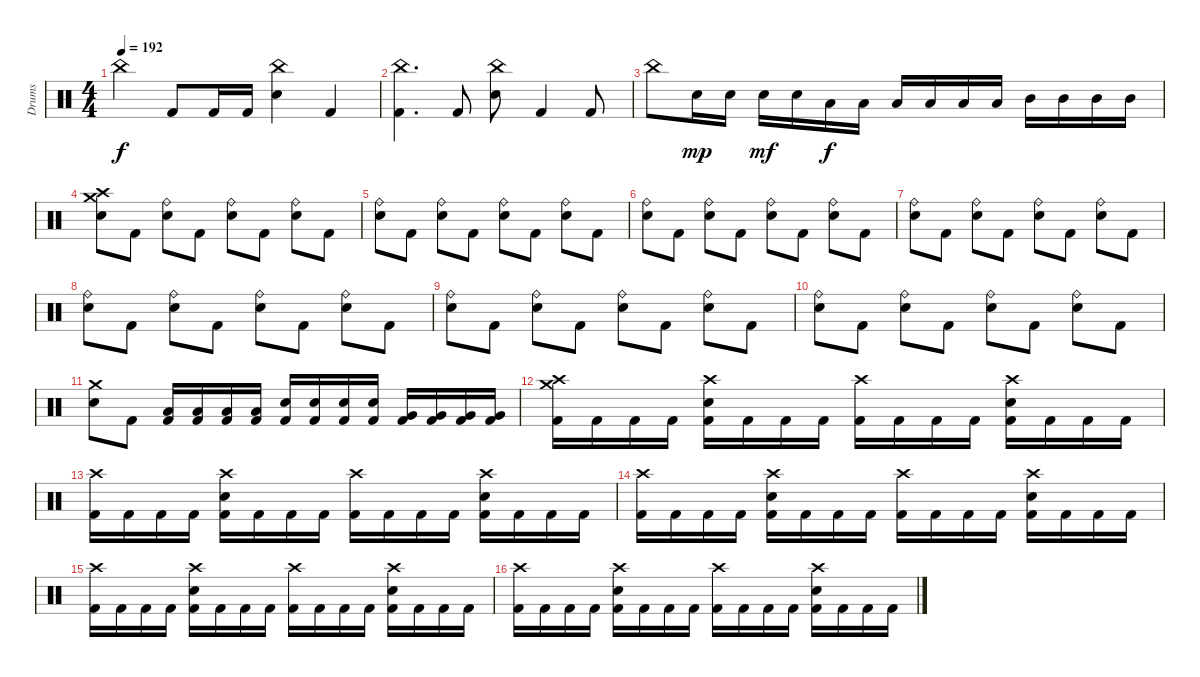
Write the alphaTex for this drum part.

\track ("Drums" "Drums") {instrument percussion}
\staff {score}
\articulation defaults
\ts (4 4)
\tempo 192
\clef neutral
\ks c "China (hit)".4{dy f} "Kick (hit) 2".8 "Kick (hit) 2".16 "Kick (hit) 2".16
("China (hit)" "Snare (hit) 2").4 "Kick (hit) 2".4 |
("China (hit)" "Kick (hit) 2").4{d} "Kick (hit) 2".8 ("China (hit)" "Snare (hit) 2").8 "Kick (hit) 2".4 "Kick (hit) 2".8 |
"China (hit)".8 "Snare (hit) 2".16{dy mp} "Snare (hit) 2".16 "Snare (hit) 2".16{dy mf} "Snare (hit) 2".16 "Low Tom (hit)".16{dy f} "Low Tom (hit)".16 "Low Tom (hit)".16 "Low Tom (hit)".16 "Low Tom (hit)".16 "Low Tom (hit)".16 "Mid Tom (hit)".16 "Mid Tom (hit)".16 "Mid Tom (hit)".16 "Mid Tom (hit)".16 |
\section ("" "")
("Crash medium (hit)" "Crash high (hit)" "Snare (hit) 2").8 "Kick (hit) 2".8 ("Ride (bell)" "Snare (hit) 2").8 "Kick (hit) 2".8 ("Ride (bell)" "Snare (hit) 2").8 "Kick (hit) 2".8 ("Ride (bell)" "Snare (hit) 2").8 "Kick (hit) 2".8 |
("Ride (bell)" "Snare (hit) 2").8 "Kick (hit) 2".8 ("Ride (bell)" "Snare (hit) 2").8 "Kick (hit) 2".8 ("Ride (bell)" "Snare (hit) 2").8 "Kick (hit) 2".8 ("Ride (bell)" "Snare (hit) 2").8 "Kick (hit) 2".8 |
("Ride (bell)" "Snare (hit) 2").8 "Kick (hit) 2".8 ("Ride (bell)" "Snare (hit) 2").8 "Kick (hit) 2".8 ("Ride (bell)" "Snare (hit) 2").8 "Kick (hit) 2".8 ("Ride (bell)" "Snare (hit) 2").8 "Kick (hit) 2".8 |
("Ride (bell)" "Snare (hit) 2").8 "Kick (hit) 2".8 ("Ride (bell)" "Snare (hit) 2").8 "Kick (hit) 2".8 ("Ride (bell)" "Snare (hit) 2").8 "Kick (hit) 2".8 ("Ride (bell)" "Snare (hit) 2").8 "Kick (hit) 2".8 |
("Ride (bell)" "Snare (hit) 2").8 "Kick (hit) 2".8 ("Ride (bell)" "Snare (hit) 2").8 "Kick (hit) 2".8 ("Ride (bell)" "Snare (hit) 2").8 "Kick (hit) 2".8 ("Ride (bell)" "Snare (hit) 2").8 "Kick (hit) 2".8 |
("Ride (bell)" "Snare (hit) 2").8 "Kick (hit) 2".8 ("Ride (bell)" "Snare (hit) 2").8 "Kick (hit) 2".8 ("Ride (bell)" "Snare (hit) 2").8 "Kick (hit) 2".8 ("Ride (bell)" "Snare (hit) 2").8 "Kick (hit) 2".8 |
("Ride (bell)" "Snare (hit) 2").8 "Kick (hit) 2".8 ("Ride (bell)" "Snare (hit) 2").8 "Kick (hit) 2".8 ("Ride (bell)" "Snare (hit) 2").8 "Kick (hit) 2".8 ("Ride (bell)" "Snare (hit) 2").8 "Kick (hit) 2".8 |
("Crash medium (hit)" "Snare (hit) 2").8 "Kick (hit) 2".8 ("Low Tom (hit)" "Kick (hit) 2").16 ("Low Tom (hit)" "Kick (hit) 2").16 ("Low Tom (hit)" "Kick (hit) 2").16 ("Low Tom (hit)" "Kick (hit) 2").16 ("Snare (hit) 2" "Kick (hit) 2").16 ("Snare (hit) 2" "Kick (hit) 2").16 ("Snare (hit) 2" "Kick (hit) 2").16 ("Snare (hit) 2" "Kick (hit) 2").16 ("Very Low Tom (hit)" "Kick (hit) 2").16 ("Very Low Tom (hit)" "Kick (hit) 2").16 ("Very Low Tom (hit)" "Kick (hit) 2").16 ("Very Low Tom (hit)" "Kick (hit) 2").16 |
("Crash high (hit)" "Crash medium (hit)" "Kick (hit) 2").16 "Kick (hit) 2".16 "Kick (hit) 2".16 "Kick (hit) 2".16 ("Crash high (hit)" "Snare (hit) 2" "Kick (hit) 2").16 "Kick (hit) 2".16 "Kick (hit) 2".16 "Kick (hit) 2".16 ("Crash high (hit)" "Kick (hit) 2").16 "Kick (hit) 2".16 "Kick (hit) 2".16 "Kick (hit) 2".16 ("Crash high (hit)" "Snare (hit) 2" "Kick (hit) 2").16 "Kick (hit) 2".16 "Kick (hit) 2".16 "Kick (hit) 2".16 |
("Crash high (hit)" "Kick (hit) 2").16 "Kick (hit) 2".16 "Kick (hit) 2".16 "Kick (hit) 2".16 ("Crash high (hit)" "Snare (hit) 2" "Kick (hit) 2").16 "Kick (hit) 2".16 "Kick (hit) 2".16 "Kick (hit) 2".16 ("Crash high (hit)" "Kick (hit) 2").16 "Kick (hit) 2".16 "Kick (hit) 2".16 "Kick (hit) 2".16 ("Crash high (hit)" "Snare (hit) 2" "Kick (hit) 2").16 "Kick (hit) 2".16 "Kick (hit) 2".16 "Kick (hit) 2".16 |
("Crash high (hit)" "Kick (hit) 2").16 "Kick (hit) 2".16 "Kick (hit) 2".16 "Kick (hit) 2".16 ("Crash high (hit)" "Snare (hit) 2" "Kick (hit) 2").16 "Kick (hit) 2".16 "Kick (hit) 2".16 "Kick (hit) 2".16 ("Crash high (hit)" "Kick (hit) 2").16 "Kick (hit) 2".16 "Kick (hit) 2".16 "Kick (hit) 2".16 ("Crash high (hit)" "Snare (hit) 2" "Kick (hit) 2").16 "Kick (hit) 2".16 "Kick (hit) 2".16 "Kick (hit) 2".16 |
("Crash high (hit)" "Kick (hit) 2").16 "Kick (hit) 2".16 "Kick (hit) 2".16 "Kick (hit) 2".16 ("Crash high (hit)" "Snare (hit) 2" "Kick (hit) 2").16 "Kick (hit) 2".16 "Kick (hit) 2".16 "Kick (hit) 2".16 ("Crash high (hit)" "Kick (hit) 2").16 "Kick (hit) 2".16 "Kick (hit) 2".16 "Kick (hit) 2".16 ("Crash high (hit)" "Snare (hit) 2" "Kick (hit) 2").16 "Kick (hit) 2".16 "Kick (hit) 2".16 "Kick (hit) 2".16 |
("Crash high (hit)" "Kick (hit) 2").16 "Kick (hit) 2".16 "Kick (hit) 2".16 "Kick (hit) 2".16 ("Crash high (hit)" "Snare (hit) 2" "Kick (hit) 2").16 "Kick (hit) 2".16 "Kick (hit) 2".16 "Kick (hit) 2".16 ("Crash high (hit)" "Kick (hit) 2").16 "Kick (hit) 2".16 "Kick (hit) 2".16 "Kick (hit) 2".16 ("Crash high (hit)" "Snare (hit) 2" "Kick (hit) 2").16 "Kick (hit) 2".16 "Kick (hit) 2".16 "Kick (hit) 2".16
